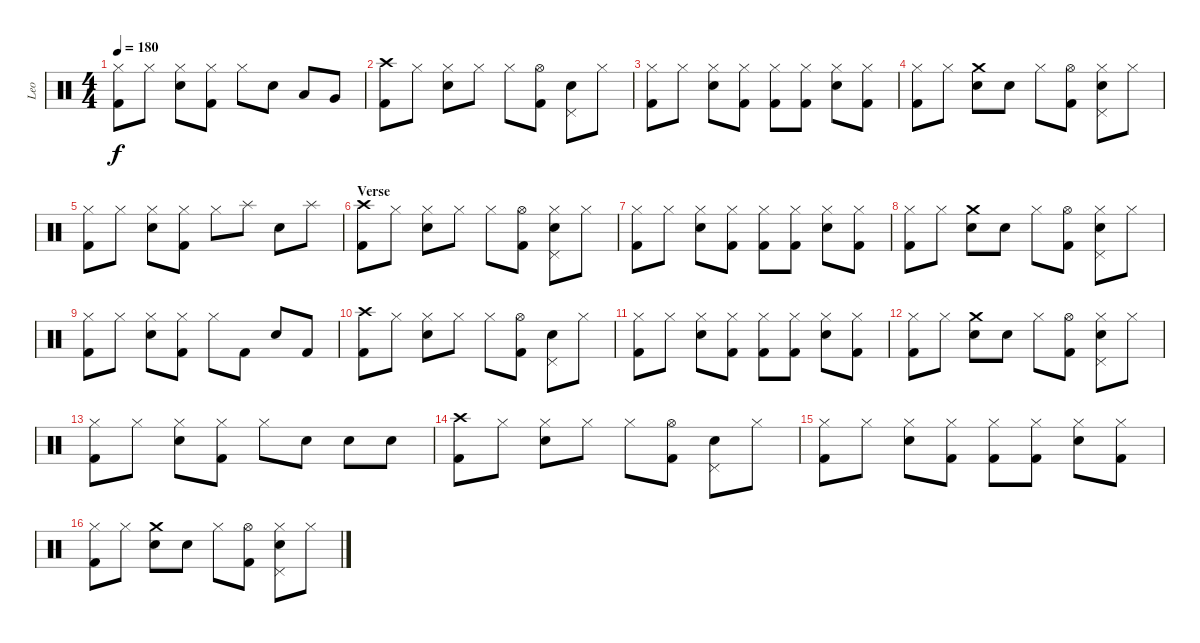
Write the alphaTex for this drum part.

\track ("Leo" "Leo") {instrument percussion}
\staff {score}
\articulation defaults
\ts (4 4)
\tempo 180
\clef neutral
\ks c
("Hi-Hat (closed)" "Kick (hit) 2").8{dy f} "Hi-Hat (closed)".8 ("Hi-Hat (closed)" "Electric Snare (hit)").8 ("Hi-Hat (closed)" "Kick (hit) 2").8 "Hi-Hat (closed)".8 "Electric Snare (hit)".8 "Low Tom (hit)".8 "Very Low Tom (hit)".8 |
("Crash high (hit)" "Kick (hit) 2").8 "Hi-Hat (closed)".8 ("Hi-Hat (closed)" "Electric Snare (hit)").8 "Hi-Hat (closed)".8 "Hi-Hat (closed)".8 ("Hi-Hat (open)" "Kick (hit) 2").8 ("Pedal Hi-Hat (hit)" "Electric Snare (hit)").8 "Hi-Hat (closed)".8 |
("Hi-Hat (closed)" "Kick (hit) 2").8 "Hi-Hat (closed)".8 ("Hi-Hat (closed)" "Electric Snare (hit)").8 ("Hi-Hat (closed)" "Kick (hit) 2").8 ("Hi-Hat (closed)" "Kick (hit) 2").8 ("Hi-Hat (closed)" "Kick (hit) 2").8 ("Hi-Hat (closed)" "Electric Snare (hit)").8 ("Hi-Hat (closed)" "Kick (hit) 2").8 |
("Hi-Hat (closed)" "Kick (hit) 2").8 "Hi-Hat (closed)".8 ("Crash medium (hit)" "Electric Snare (hit)").8 "Electric Snare (hit)".8 "Hi-Hat (closed)".8 ("Hi-Hat (open)" "Kick (hit) 2").8 ("Hi-Hat (closed)" "Electric Snare (hit)" "Pedal Hi-Hat (hit)").8 "Hi-Hat (closed)".8 |
("Hi-Hat (closed)" "Kick (hit) 2").8 "Hi-Hat (closed)".8 ("Hi-Hat (closed)" "Electric Snare (hit)").8 ("Hi-Hat (closed)" "Kick (hit) 2").8 "Hi-Hat (closed)".8 "Splash (hit)".8 "Electric Snare (hit)".8 "Splash (hit)".8 |
\section ("" "Verse")
("Crash high (hit)" "Kick (hit) 2").8 "Hi-Hat (closed)".8 ("Hi-Hat (closed)" "Electric Snare (hit)").8 "Hi-Hat (closed)".8 "Hi-Hat (closed)".8 ("Hi-Hat (open)" "Kick (hit) 2").8 ("Pedal Hi-Hat (hit)" "Electric Snare (hit)" "Hi-Hat (closed)").8 "Hi-Hat (closed)".8 |
("Hi-Hat (closed)" "Kick (hit) 2").8 "Hi-Hat (closed)".8 ("Hi-Hat (closed)" "Electric Snare (hit)").8 ("Hi-Hat (closed)" "Kick (hit) 2").8 ("Hi-Hat (closed)" "Kick (hit) 2").8 ("Hi-Hat (closed)" "Kick (hit) 2").8 ("Hi-Hat (closed)" "Electric Snare (hit)").8 ("Hi-Hat (closed)" "Kick (hit) 2").8 |
("Hi-Hat (closed)" "Kick (hit) 2").8 "Hi-Hat (closed)".8 ("Crash medium (hit)" "Electric Snare (hit)").8 "Electric Snare (hit)".8 "Hi-Hat (closed)".8 ("Hi-Hat (open)" "Kick (hit) 2").8 ("Hi-Hat (closed)" "Electric Snare (hit)" "Pedal Hi-Hat (hit)").8 "Hi-Hat (closed)".8 |
("Hi-Hat (closed)" "Kick (hit) 2").8 "Hi-Hat (closed)".8 ("Hi-Hat (closed)" "Electric Snare (hit)").8 ("Hi-Hat (closed)" "Kick (hit) 2").8 "Hi-Hat (closed)".8 "Kick (hit) 2".8 "Electric Snare (hit)".8 "Kick (hit) 2".8 |
("Crash high (hit)" "Kick (hit) 2").8 "Hi-Hat (closed)".8 ("Hi-Hat (closed)" "Electric Snare (hit)").8 "Hi-Hat (closed)".8 "Hi-Hat (closed)".8 ("Hi-Hat (open)" "Kick (hit) 2").8 ("Pedal Hi-Hat (hit)" "Electric Snare (hit)").8 "Hi-Hat (closed)".8 |
("Hi-Hat (closed)" "Kick (hit) 2").8 "Hi-Hat (closed)".8 ("Hi-Hat (closed)" "Electric Snare (hit)").8 ("Hi-Hat (closed)" "Kick (hit) 2").8 ("Hi-Hat (closed)" "Kick (hit) 2").8 ("Hi-Hat (closed)" "Kick (hit) 2").8 ("Hi-Hat (closed)" "Electric Snare (hit)").8 ("Hi-Hat (closed)" "Kick (hit) 2").8 |
("Hi-Hat (closed)" "Kick (hit) 2").8 "Hi-Hat (closed)".8 ("Crash medium (hit)" "Electric Snare (hit)").8 "Electric Snare (hit)".8 "Hi-Hat (closed)".8 ("Hi-Hat (open)" "Kick (hit) 2").8 ("Hi-Hat (closed)" "Electric Snare (hit)" "Pedal Hi-Hat (hit)").8 "Hi-Hat (closed)".8 |
("Hi-Hat (closed)" "Kick (hit) 2").8 "Hi-Hat (closed)".8 ("Hi-Hat (closed)" "Electric Snare (hit)").8 ("Hi-Hat (closed)" "Kick (hit) 2").8 "Hi-Hat (closed)".8 "Electric Snare (hit)".8 "Electric Snare (hit)".8 "Electric Snare (hit)".8 |
("Crash high (hit)" "Kick (hit) 2").8 "Hi-Hat (closed)".8 ("Hi-Hat (closed)" "Electric Snare (hit)").8 "Hi-Hat (closed)".8 "Hi-Hat (closed)".8 ("Hi-Hat (open)" "Kick (hit) 2").8 ("Pedal Hi-Hat (hit)" "Electric Snare (hit)").8 "Hi-Hat (closed)".8 |
("Hi-Hat (closed)" "Kick (hit) 2").8 "Hi-Hat (closed)".8 ("Hi-Hat (closed)" "Electric Snare (hit)").8 ("Hi-Hat (closed)" "Kick (hit) 2").8 ("Hi-Hat (closed)" "Kick (hit) 2").8 ("Hi-Hat (closed)" "Kick (hit) 2").8 ("Hi-Hat (closed)" "Electric Snare (hit)").8 ("Hi-Hat (closed)" "Kick (hit) 2").8 |
("Hi-Hat (closed)" "Kick (hit) 2").8 "Hi-Hat (closed)".8 ("Crash medium (hit)" "Electric Snare (hit)").8 "Electric Snare (hit)".8 "Hi-Hat (closed)".8 ("Hi-Hat (open)" "Kick (hit) 2").8 ("Hi-Hat (closed)" "Electric Snare (hit)" "Pedal Hi-Hat (hit)").8 "Hi-Hat (closed)".8
